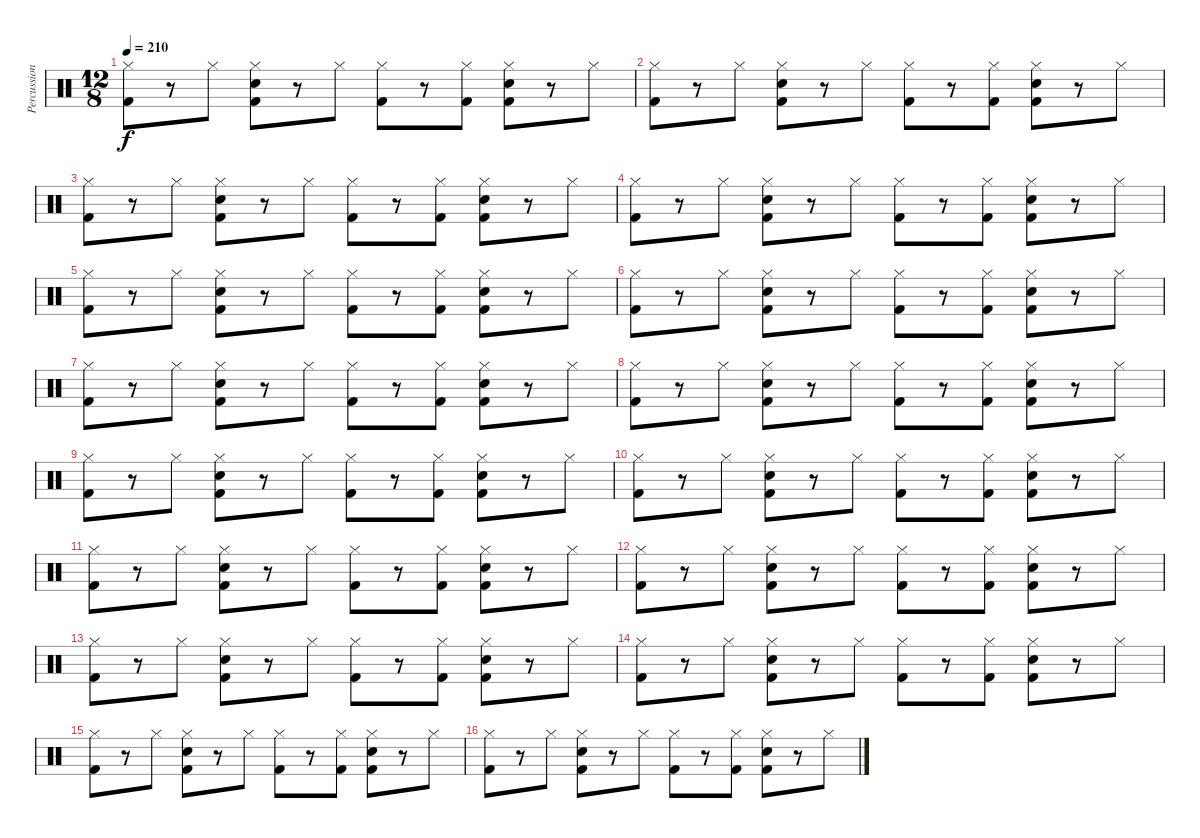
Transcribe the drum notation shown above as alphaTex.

\track ("Percussions" "Percussion") {instrument percussion}
\staff {score}
\articulation defaults
\ts (12 8)
\tempo 210
\clef neutral
\ks c
("Kick (hit) 2" "Hi-Hat (closed)").8{dy f} r.8 "Hi-Hat (closed)".8 ("Snare (hit) 2" "Kick (hit) 2" "Hi-Hat (closed)").8 r.8 "Hi-Hat (closed)".8 ("Kick (hit) 2" "Hi-Hat (closed)").8 r.8 ("Kick (hit) 2" "Hi-Hat (closed)").8 ("Snare (hit) 2" "Kick (hit) 2" "Hi-Hat (closed)").8 r.8 "Hi-Hat (closed)".8 |
("Kick (hit) 2" "Hi-Hat (closed)").8 r.8 "Hi-Hat (closed)".8 ("Snare (hit) 2" "Kick (hit) 2" "Hi-Hat (closed)").8 r.8 "Hi-Hat (closed)".8 ("Kick (hit) 2" "Hi-Hat (closed)").8 r.8 ("Kick (hit) 2" "Hi-Hat (closed)").8 ("Snare (hit) 2" "Kick (hit) 2" "Hi-Hat (closed)").8 r.8 "Hi-Hat (closed)".8 |
("Kick (hit) 2" "Hi-Hat (closed)").8 r.8 "Hi-Hat (closed)".8 ("Snare (hit) 2" "Kick (hit) 2" "Hi-Hat (closed)").8 r.8 "Hi-Hat (closed)".8 ("Kick (hit) 2" "Hi-Hat (closed)").8 r.8 ("Kick (hit) 2" "Hi-Hat (closed)").8 ("Snare (hit) 2" "Kick (hit) 2" "Hi-Hat (closed)").8 r.8 "Hi-Hat (closed)".8 |
("Kick (hit) 2" "Hi-Hat (closed)").8 r.8 "Hi-Hat (closed)".8 ("Snare (hit) 2" "Kick (hit) 2" "Hi-Hat (closed)").8 r.8 "Hi-Hat (closed)".8 ("Kick (hit) 2" "Hi-Hat (closed)").8 r.8 ("Kick (hit) 2" "Hi-Hat (closed)").8 ("Snare (hit) 2" "Kick (hit) 2" "Hi-Hat (closed)").8 r.8 "Hi-Hat (closed)".8 |
("Kick (hit) 2" "Hi-Hat (closed)").8 r.8 "Hi-Hat (closed)".8 ("Snare (hit) 2" "Kick (hit) 2" "Hi-Hat (closed)").8 r.8 "Hi-Hat (closed)".8 ("Kick (hit) 2" "Hi-Hat (closed)").8 r.8 ("Kick (hit) 2" "Hi-Hat (closed)").8 ("Snare (hit) 2" "Kick (hit) 2" "Hi-Hat (closed)").8 r.8 "Hi-Hat (closed)".8 |
("Kick (hit) 2" "Hi-Hat (closed)").8 r.8 "Hi-Hat (closed)".8 ("Snare (hit) 2" "Kick (hit) 2" "Hi-Hat (closed)").8 r.8 "Hi-Hat (closed)".8 ("Kick (hit) 2" "Hi-Hat (closed)").8 r.8 ("Kick (hit) 2" "Hi-Hat (closed)").8 ("Snare (hit) 2" "Kick (hit) 2" "Hi-Hat (closed)").8 r.8 "Hi-Hat (closed)".8 |
("Kick (hit) 2" "Hi-Hat (closed)").8 r.8 "Hi-Hat (closed)".8 ("Snare (hit) 2" "Kick (hit) 2" "Hi-Hat (closed)").8 r.8 "Hi-Hat (closed)".8 ("Kick (hit) 2" "Hi-Hat (closed)").8 r.8 ("Kick (hit) 2" "Hi-Hat (closed)").8 ("Snare (hit) 2" "Kick (hit) 2" "Hi-Hat (closed)").8 r.8 "Hi-Hat (closed)".8 |
("Kick (hit) 2" "Hi-Hat (closed)").8 r.8 "Hi-Hat (closed)".8 ("Snare (hit) 2" "Kick (hit) 2" "Hi-Hat (closed)").8 r.8 "Hi-Hat (closed)".8 ("Kick (hit) 2" "Hi-Hat (closed)").8 r.8 ("Kick (hit) 2" "Hi-Hat (closed)").8 ("Snare (hit) 2" "Kick (hit) 2" "Hi-Hat (closed)").8 r.8 "Hi-Hat (closed)".8 |
("Kick (hit) 2" "Hi-Hat (closed)").8 r.8 "Hi-Hat (closed)".8 ("Snare (hit) 2" "Kick (hit) 2" "Hi-Hat (closed)").8 r.8 "Hi-Hat (closed)".8 ("Kick (hit) 2" "Hi-Hat (closed)").8 r.8 ("Kick (hit) 2" "Hi-Hat (closed)").8 ("Snare (hit) 2" "Kick (hit) 2" "Hi-Hat (closed)").8 r.8 "Hi-Hat (closed)".8 |
("Kick (hit) 2" "Hi-Hat (closed)").8 r.8 "Hi-Hat (closed)".8 ("Snare (hit) 2" "Kick (hit) 2" "Hi-Hat (closed)").8 r.8 "Hi-Hat (closed)".8 ("Kick (hit) 2" "Hi-Hat (closed)").8 r.8 ("Kick (hit) 2" "Hi-Hat (closed)").8 ("Snare (hit) 2" "Kick (hit) 2" "Hi-Hat (closed)").8 r.8 "Hi-Hat (closed)".8 |
("Kick (hit) 2" "Hi-Hat (closed)").8 r.8 "Hi-Hat (closed)".8 ("Snare (hit) 2" "Kick (hit) 2" "Hi-Hat (closed)").8 r.8 "Hi-Hat (closed)".8 ("Kick (hit) 2" "Hi-Hat (closed)").8 r.8 ("Kick (hit) 2" "Hi-Hat (closed)").8 ("Snare (hit) 2" "Kick (hit) 2" "Hi-Hat (closed)").8 r.8 "Hi-Hat (closed)".8 |
("Kick (hit) 2" "Hi-Hat (closed)").8 r.8 "Hi-Hat (closed)".8 ("Snare (hit) 2" "Kick (hit) 2" "Hi-Hat (closed)").8 r.8 "Hi-Hat (closed)".8 ("Kick (hit) 2" "Hi-Hat (closed)").8 r.8 ("Kick (hit) 2" "Hi-Hat (closed)").8 ("Snare (hit) 2" "Kick (hit) 2" "Hi-Hat (closed)").8 r.8 "Hi-Hat (closed)".8 |
("Kick (hit) 2" "Hi-Hat (closed)").8 r.8 "Hi-Hat (closed)".8 ("Snare (hit) 2" "Kick (hit) 2" "Hi-Hat (closed)").8 r.8 "Hi-Hat (closed)".8 ("Kick (hit) 2" "Hi-Hat (closed)").8 r.8 ("Kick (hit) 2" "Hi-Hat (closed)").8 ("Snare (hit) 2" "Kick (hit) 2" "Hi-Hat (closed)").8 r.8 "Hi-Hat (closed)".8 |
("Kick (hit) 2" "Hi-Hat (closed)").8 r.8 "Hi-Hat (closed)".8 ("Snare (hit) 2" "Kick (hit) 2" "Hi-Hat (closed)").8 r.8 "Hi-Hat (closed)".8 ("Kick (hit) 2" "Hi-Hat (closed)").8 r.8 ("Kick (hit) 2" "Hi-Hat (closed)").8 ("Snare (hit) 2" "Kick (hit) 2" "Hi-Hat (closed)").8 r.8 "Hi-Hat (closed)".8 |
("Kick (hit) 2" "Hi-Hat (closed)").8 r.8 "Hi-Hat (closed)".8 ("Snare (hit) 2" "Kick (hit) 2" "Hi-Hat (closed)").8 r.8 "Hi-Hat (closed)".8 ("Kick (hit) 2" "Hi-Hat (closed)").8 r.8 ("Kick (hit) 2" "Hi-Hat (closed)").8 ("Snare (hit) 2" "Kick (hit) 2" "Hi-Hat (closed)").8 r.8 "Hi-Hat (closed)".8 |
("Kick (hit) 2" "Hi-Hat (closed)").8 r.8 "Hi-Hat (closed)".8 ("Snare (hit) 2" "Kick (hit) 2" "Hi-Hat (closed)").8 r.8 "Hi-Hat (closed)".8 ("Kick (hit) 2" "Hi-Hat (closed)").8 r.8 ("Kick (hit) 2" "Hi-Hat (closed)").8 ("Snare (hit) 2" "Kick (hit) 2" "Hi-Hat (closed)").8 r.8 "Hi-Hat (closed)".8
